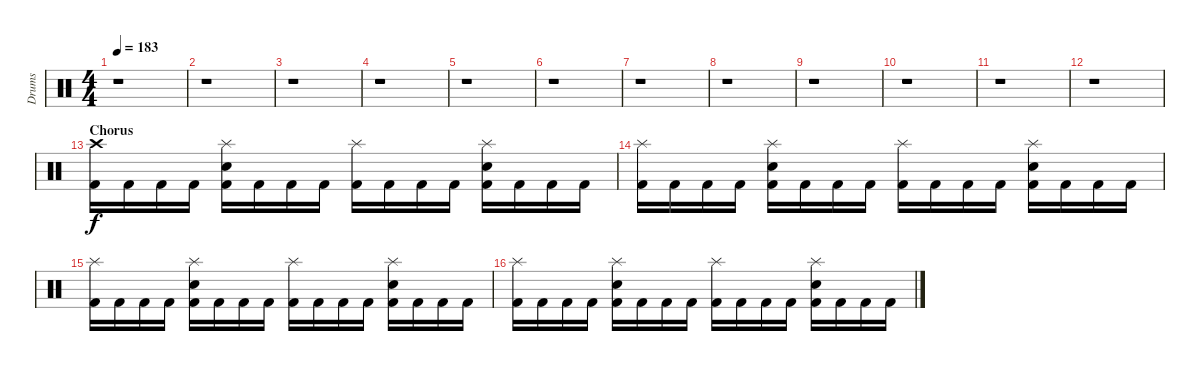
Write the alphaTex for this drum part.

\track ("Drums" "Drums") {instrument percussion}
\staff {score}
\articulation defaults
\ts (4 4)
\tempo 183
\clef neutral
\ks c
r.1{dy f} |
r.1 |
r.1 |
r.1 |
r.1 |
r.1 |
r.1 |
r.1 |
r.1 |
r.1 |
r.1 |
r.1 |
\section ("" "Chorus")
("Kick (hit) 2" "Crash high (hit)").16 "Kick (hit) 2".16 "Kick (hit) 2".16 "Kick (hit) 2".16 ("Kick (hit) 2" "Electric Snare (hit)" "Splash (hit)").16 "Kick (hit) 2".16 "Kick (hit) 2".16 "Kick (hit) 2".16 ("Kick (hit) 2" "Splash (hit)").16 "Kick (hit) 2".16 "Kick (hit) 2".16 "Kick (hit) 2".16 ("Kick (hit) 2" "Electric Snare (hit)" "Splash (hit)").16 "Kick (hit) 2".16 "Kick (hit) 2".16 "Kick (hit) 2".16 |
("Kick (hit) 2" "Splash (hit)").16 "Kick (hit) 2".16 "Kick (hit) 2".16 "Kick (hit) 2".16 ("Kick (hit) 2" "Electric Snare (hit)" "Splash (hit)").16 "Kick (hit) 2".16 "Kick (hit) 2".16 "Kick (hit) 2".16 ("Kick (hit) 2" "Splash (hit)").16 "Kick (hit) 2".16 "Kick (hit) 2".16 "Kick (hit) 2".16 ("Kick (hit) 2" "Electric Snare (hit)" "Splash (hit)").16 "Kick (hit) 2".16 "Kick (hit) 2".16 "Kick (hit) 2".16 |
("Kick (hit) 2" "Splash (hit)").16 "Kick (hit) 2".16 "Kick (hit) 2".16 "Kick (hit) 2".16 ("Kick (hit) 2" "Electric Snare (hit)" "Splash (hit)").16 "Kick (hit) 2".16 "Kick (hit) 2".16 "Kick (hit) 2".16 ("Kick (hit) 2" "Splash (hit)").16 "Kick (hit) 2".16 "Kick (hit) 2".16 "Kick (hit) 2".16 ("Kick (hit) 2" "Electric Snare (hit)" "Splash (hit)").16 "Kick (hit) 2".16 "Kick (hit) 2".16 "Kick (hit) 2".16 |
("Kick (hit) 2" "Splash (hit)").16 "Kick (hit) 2".16 "Kick (hit) 2".16 "Kick (hit) 2".16 ("Kick (hit) 2" "Electric Snare (hit)" "Splash (hit)").16 "Kick (hit) 2".16 "Kick (hit) 2".16 "Kick (hit) 2".16 ("Kick (hit) 2" "Splash (hit)").16 "Kick (hit) 2".16 "Kick (hit) 2".16 "Kick (hit) 2".16 ("Kick (hit) 2" "Electric Snare (hit)" "Splash (hit)").16 "Kick (hit) 2".16 "Kick (hit) 2".16 "Kick (hit) 2".16
